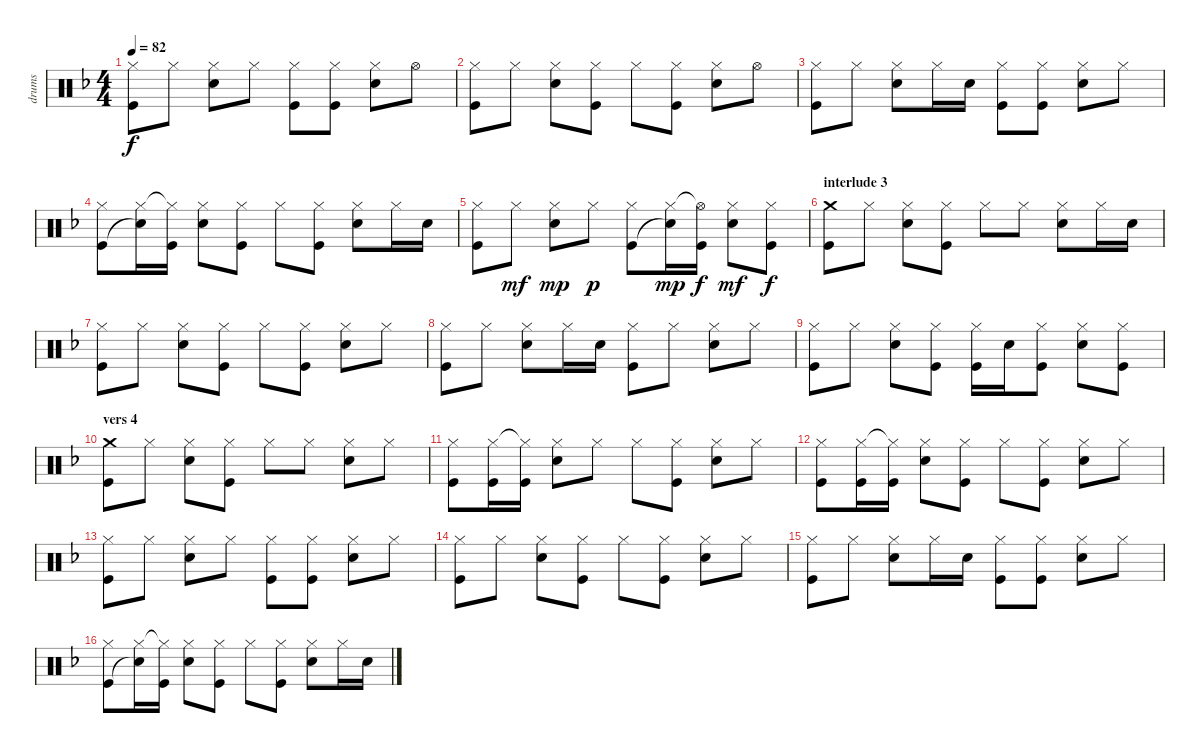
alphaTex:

\track ("drums" "drums") {instrument percussion}
\staff {score}
\articulation defaults
\ts (4 4)
\tempo 82
\clef neutral
\ks f
("Hi-Hat (closed)" "Kick (hit)").8{dy f} "Hi-Hat (closed)".8 ("Hi-Hat (closed)" "Snare (hit) 2").8 "Hi-Hat (closed)".8 ("Hi-Hat (closed)" "Kick (hit)").8 ("Hi-Hat (closed)" "Kick (hit)").8 ("Hi-Hat (closed)" "Snare (hit) 2").8 "Hi-Hat (open)".8 |
("Hi-Hat (closed)" "Kick (hit)").8 "Hi-Hat (closed)".8 ("Hi-Hat (closed)" "Snare (hit) 2").8 ("Hi-Hat (closed)" "Kick (hit)").8 "Hi-Hat (closed)".8 ("Hi-Hat (closed)" "Kick (hit)").8 ("Hi-Hat (closed)" "Snare (hit) 2").8 "Hi-Hat (open)".8 |
("Hi-Hat (closed)" "Kick (hit)").8 "Hi-Hat (closed)".8 ("Hi-Hat (closed)" "Snare (hit) 2").8 "Hi-Hat (closed)".16 "Snare (hit) 2".16 ("Hi-Hat (closed)" "Kick (hit)").8 ("Hi-Hat (closed)" "Kick (hit)").8 ("Hi-Hat (closed)" "Snare (hit) 2").8 "Hi-Hat (closed)".8 |
("Hi-Hat (closed)" "Kick (hit)").8 ("Hi-Hat (closed)" "Snare (hit)"{t}).16 ("Hi-Hat (closed)"{t} "Kick (hit)").16 ("Hi-Hat (closed)" "Snare (hit) 2").8 ("Hi-Hat (closed)" "Kick (hit)").8 "Hi-Hat (closed)".8 ("Hi-Hat (closed)" "Kick (hit)").8 ("Hi-Hat (closed)" "Snare (hit) 2").8 "Hi-Hat (closed)".16 "Snare (hit) 2".16 |
("Hi-Hat (closed)" "Kick (hit)").8 "Hi-Hat (closed)".8{dy mf} ("Hi-Hat (closed)" "Snare (hit) 2").8{dy mp} "Hi-Hat (closed)".8{dy p} ("Hi-Hat (closed)" "Kick (hit)").8 ("Hi-Hat (closed)" "Snare (hit)"{t}).16{dy mp} ("Hi-Hat (open)"{t} "Kick (hit)").16{dy f} ("Hi-Hat (closed)" "Snare (hit) 2").8{dy mf} ("Hi-Hat (closed)" "Kick (hit)").8{dy f} |
\section ("" "interlude 3")
("Crash medium (hit)" "Kick (hit)").8 "Hi-Hat (closed)".8 ("Hi-Hat (closed)" "Snare (hit) 2").8 ("Hi-Hat (closed)" "Kick (hit)").8 "Hi-Hat (closed)".8 "Hi-Hat (closed)".8 ("Hi-Hat (closed)" "Snare (hit) 2").8 "Hi-Hat (closed)".16 "Snare (hit) 2".16 |
("Hi-Hat (closed)" "Kick (hit)").8 "Hi-Hat (closed)".8 ("Hi-Hat (closed)" "Snare (hit) 2").8 ("Hi-Hat (closed)" "Kick (hit)").8 "Hi-Hat (closed)".8 ("Hi-Hat (closed)" "Kick (hit)").8 ("Hi-Hat (closed)" "Snare (hit) 2").8 "Hi-Hat (closed)".8 |
("Hi-Hat (closed)" "Kick (hit)").8 "Hi-Hat (closed)".8 ("Hi-Hat (closed)" "Snare (hit) 2").8 "Hi-Hat (closed)".16 "Snare (hit) 2".16 ("Hi-Hat (closed)" "Kick (hit)").8 "Hi-Hat (closed)".8 ("Hi-Hat (closed)" "Snare (hit) 2").8 "Hi-Hat (closed)".8 |
("Hi-Hat (closed)" "Kick (hit)").8 "Hi-Hat (closed)".8 ("Hi-Hat (closed)" "Snare (hit) 2").8 ("Hi-Hat (closed)" "Kick (hit)").8 ("Hi-Hat (closed)" "Kick (hit)").16 "Snare (hit) 2".16 ("Hi-Hat (closed)" "Kick (hit)").8 ("Hi-Hat (closed)" "Snare (hit) 2").8 ("Hi-Hat (closed)" "Kick (hit)").8 |
\section ("" "vers 4")
("Crash medium (hit)" "Kick (hit)").8 "Hi-Hat (closed)".8 ("Hi-Hat (closed)" "Snare (hit) 2").8 ("Hi-Hat (closed)" "Kick (hit)").8 "Hi-Hat (closed)".8 "Hi-Hat (closed)".8 ("Hi-Hat (closed)" "Snare (hit) 2").8 "Hi-Hat (closed)".8 |
("Hi-Hat (closed)" "Kick (hit)").8 ("Hi-Hat (closed)" "Kick (hit)").16 ("Hi-Hat (closed)"{t} "Kick (hit)").16 ("Hi-Hat (closed)" "Snare (hit) 2").8 "Hi-Hat (closed)".8 "Hi-Hat (closed)".8 ("Hi-Hat (closed)" "Kick (hit)").8 ("Hi-Hat (closed)" "Snare (hit) 2").8 "Hi-Hat (closed)".8 |
("Hi-Hat (closed)" "Kick (hit)").8 ("Hi-Hat (closed)" "Kick (hit)").16 ("Hi-Hat (closed)"{t} "Kick (hit)").16 ("Hi-Hat (closed)" "Snare (hit) 2").8 ("Hi-Hat (closed)" "Kick (hit)").8 "Hi-Hat (closed)".8 ("Hi-Hat (closed)" "Kick (hit)").8 ("Hi-Hat (closed)" "Snare (hit) 2").8 "Hi-Hat (closed)".8 |
("Hi-Hat (closed)" "Kick (hit)").8 "Hi-Hat (closed)".8 ("Hi-Hat (closed)" "Snare (hit) 2").8 "Hi-Hat (closed)".8 ("Hi-Hat (closed)" "Kick (hit)").8 ("Hi-Hat (closed)" "Kick (hit)").8 ("Hi-Hat (closed)" "Snare (hit) 2").8 "Hi-Hat (closed)".8 |
("Hi-Hat (closed)" "Kick (hit)").8 "Hi-Hat (closed)".8 ("Hi-Hat (closed)" "Snare (hit) 2").8 ("Hi-Hat (closed)" "Kick (hit)").8 "Hi-Hat (closed)".8 ("Hi-Hat (closed)" "Kick (hit)").8 ("Hi-Hat (closed)" "Snare (hit) 2").8 "Hi-Hat (closed)".8 |
("Hi-Hat (closed)" "Kick (hit)").8 "Hi-Hat (closed)".8 ("Hi-Hat (closed)" "Snare (hit) 2").8 "Hi-Hat (closed)".16 "Snare (hit) 2".16 ("Hi-Hat (closed)" "Kick (hit)").8 ("Hi-Hat (closed)" "Kick (hit)").8 ("Hi-Hat (closed)" "Snare (hit) 2").8 "Hi-Hat (closed)".8 |
("Hi-Hat (closed)" "Kick (hit)").8 ("Hi-Hat (closed)" "Snare (hit)"{t}).16 ("Hi-Hat (closed)"{t} "Kick (hit)").16 ("Hi-Hat (closed)" "Snare (hit) 2").8 ("Hi-Hat (closed)" "Kick (hit)").8 "Hi-Hat (closed)".8 ("Hi-Hat (closed)" "Kick (hit)").8 ("Hi-Hat (closed)" "Snare (hit) 2").8 "Hi-Hat (closed)".16 "Snare (hit) 2".16
